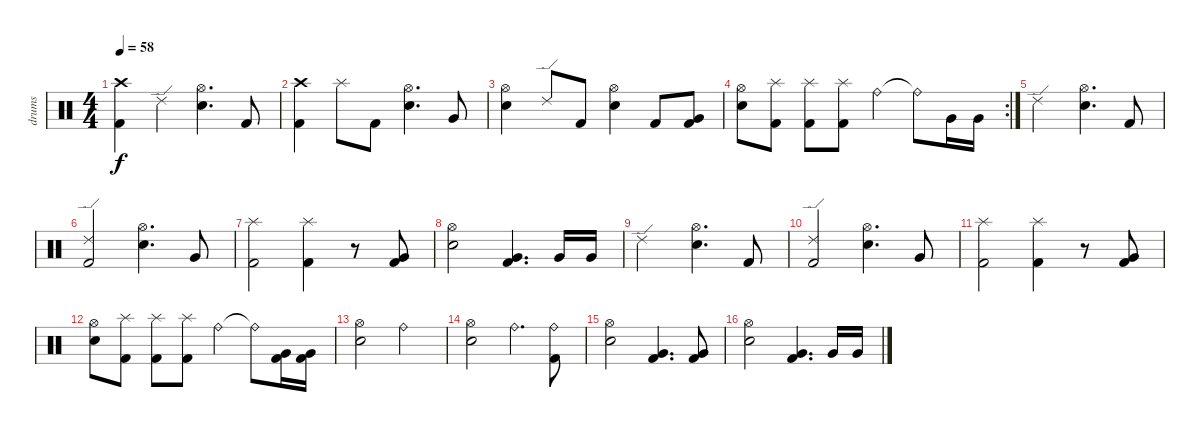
\track ("drums" "drums") {instrument percussion}
\staff {score}
\articulation defaults
\ts (4 4)
\tempo 58
\clef neutral
\ks c
("Crash high (hit)" "Kick (hit) 2").4{dy f} "Ride (edge) 2".4 ("Hi-Hat (open)" "Snare (hit) 2").4{d} "Kick (hit) 2".8 |
("Crash high (hit)" "Kick (hit) 2").4 "Splash (hit)".8 "Kick (hit) 2".8 ("Hi-Hat (open)" "Snare (hit) 2").4{d} "Very Low Tom (hit)".8 |
("Hi-Hat (open)" "Snare (hit) 2").4 "Ride (edge) 2".8 "Kick (hit) 2".8 ("Hi-Hat (open)" "Snare (hit) 2").4 "Kick (hit) 2".8 ("Kick (hit) 2" "Very Low Tom (hit)").8 |
\rc 2
("Hi-Hat (open)" "Snare (hit) 2").8 ("Kick (hit) 2" "Splash (hit)").8 ("Kick (hit) 2" "Splash (hit)").8 ("Kick (hit) 2" "Splash (hit)").8 "Ride (bell)".4 "Ride (bell)"{t}.8 "Very Low Tom (hit)".16 "Very Low Tom (hit)".16 |
"Ride (edge) 2".2 ("Hi-Hat (open)" "Snare (hit) 2").4{d} "Kick (hit) 2".8 |
("Kick (hit) 2" "Ride (edge) 2").2 ("Hi-Hat (open)" "Snare (hit) 2").4{d} "Very Low Tom (hit)".8 |
("Kick (hit) 2" "Splash (hit)").2 ("Kick (hit) 2" "Splash (hit)").4 r.8 ("Kick (hit) 2" "Very Low Tom (hit)").8 |
("Hi-Hat (open)" "Snare (hit) 2").2 ("Kick (hit) 2" "Very Low Tom (hit)").4{d} "Very Low Tom (hit)".16 "Very Low Tom (hit)".16 |
"Ride (edge) 2".2 ("Hi-Hat (open)" "Snare (hit) 2").4{d} "Kick (hit) 2".8 |
("Kick (hit) 2" "Ride (edge) 2").2 ("Hi-Hat (open)" "Snare (hit) 2").4{d} "Very Low Tom (hit)".8 |
("Kick (hit) 2" "Splash (hit)").2 ("Kick (hit) 2" "Splash (hit)").4 r.8 ("Kick (hit) 2" "Very Low Tom (hit)").8 |
("Hi-Hat (open)" "Snare (hit) 2").8 ("Kick (hit) 2" "Splash (hit)").8 ("Kick (hit) 2" "Splash (hit)").8 ("Kick (hit) 2" "Splash (hit)").8 "Ride (bell)".4 "Ride (bell)"{t}.8 ("Kick (hit) 2" "Very Low Tom (hit)").16 ("Kick (hit) 2" "Very Low Tom (hit)").16 |
("Hi-Hat (open)" "Snare (hit) 2").2 "Ride (bell)".2 |
("Hi-Hat (open)" "Snare (hit) 2").2 "Ride (bell)".4{d} ("Ride (bell)" "Kick (hit) 2").8 |
("Hi-Hat (open)" "Snare (hit) 2").2 ("Kick (hit) 2" "Very Low Tom (hit)").4{d} ("Kick (hit) 2" "Very Low Tom (hit)").8 |
("Hi-Hat (open)" "Snare (hit) 2").2 ("Kick (hit) 2" "Very Low Tom (hit)").4{d} "Very Low Tom (hit)".16 "Very Low Tom (hit)".16
